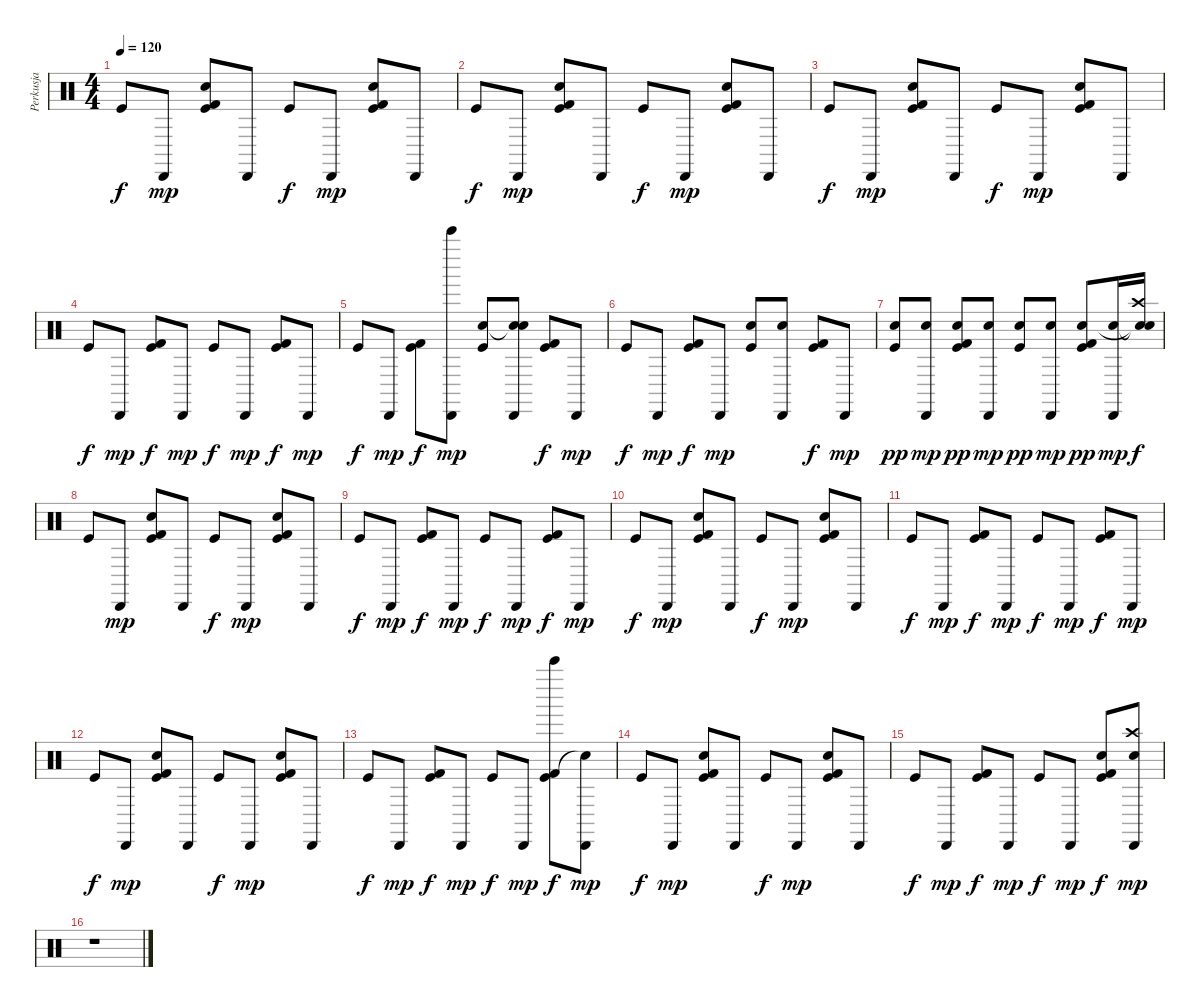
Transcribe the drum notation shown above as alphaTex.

\track ("Perkusja" "Perkusja") {instrument percussion}
\staff {score}
\articulation defaults
\ts (4 4)
\tempo 120
\clef neutral
\ks c "Kick (hit)".8{dy f} "Cabasa (hit)".8{dy mp}
("Kick (hit)" "Kick (hit) 2" "Electric Snare (hit)").8 "Cabasa (hit)".8 "Kick (hit)".8{dy f} "Cabasa (hit)".8{dy mp} ("Kick (hit)" "Kick (hit) 2" "Electric Snare (hit)").8 "Cabasa (hit)".8 |
"Kick (hit)".8{dy f} "Cabasa (hit)".8{dy mp} ("Kick (hit)" "Kick (hit) 2" "Electric Snare (hit)").8 "Cabasa (hit)".8 "Kick (hit)".8{dy f} "Cabasa (hit)".8{dy mp} ("Kick (hit)" "Kick (hit) 2" "Electric Snare (hit)").8 "Cabasa (hit)".8 |
"Kick (hit)".8{dy f} "Cabasa (hit)".8{dy mp} ("Kick (hit)" "Kick (hit) 2" "Electric Snare (hit)").8 "Cabasa (hit)".8 "Kick (hit)".8{dy f} "Cabasa (hit)".8{dy mp} ("Kick (hit)" "Kick (hit) 2" "Electric Snare (hit)").8 "Cabasa (hit)".8 |
"Kick (hit)".8{dy f} "Cabasa (hit)".8{dy mp} ("Kick (hit)" "Kick (hit) 2").8{dy f} "Cabasa (hit)".8{dy mp} "Kick (hit)".8{dy f} "Cabasa (hit)".8{dy mp} ("Kick (hit)" "Kick (hit) 2").8{dy f} "Cabasa (hit)".8{dy mp} |
"Kick (hit)".8{dy f} "Cabasa (hit)".8{dy mp} ("Kick (hit)" "Kick (hit) 2").8{dy f} ("Bell Tree (hit)" "Cabasa (hit)").8{dy mp} ("Kick (hit)" "Electric Snare (hit)").8 ("Electric Snare (hit)" "Snare (hit)"{t} "Cabasa (hit)").8 ("Kick (hit)" "Kick (hit) 2").8{dy f} "Cabasa (hit)".8{dy mp} |
"Kick (hit)".8{dy f} "Cabasa (hit)".8{dy mp} ("Kick (hit)" "Kick (hit) 2").8{dy f} "Cabasa (hit)".8{dy mp} ("Kick (hit)" "Electric Snare (hit)").8 ("Electric Snare (hit)" "Cabasa (hit)").8 ("Kick (hit)" "Kick (hit) 2").8{dy f} "Cabasa (hit)".8{dy mp} |
("Kick (hit)" "Electric Snare (hit)").8{dy pp} ("Electric Snare (hit)" "Cabasa (hit)").8{dy mp} ("Kick (hit)" "Kick (hit) 2" "Electric Snare (hit)").8{dy pp} ("Electric Snare (hit)" "Cabasa (hit)").8{dy mp} ("Kick (hit)" "Electric Snare (hit)").8{dy pp} ("Electric Snare (hit)" "Cabasa (hit)").8{dy mp} ("Kick (hit)" "Kick (hit) 2" "Electric Snare (hit)").8{dy pp} ("Electric Snare (hit)" "Cabasa (hit)").16{dy mp} ("Snare (hit)"{t} "Crash high (hit)" "Snare (hit)"{t}).16{dy f} |
"Kick (hit)".8 "Cabasa (hit)".8{dy mp} ("Kick (hit)" "Kick (hit) 2" "Electric Snare (hit)").8 "Cabasa (hit)".8 "Kick (hit)".8{dy f} "Cabasa (hit)".8{dy mp} ("Kick (hit)" "Kick (hit) 2" "Electric Snare (hit)").8 "Cabasa (hit)".8 |
"Kick (hit)".8{dy f} "Cabasa (hit)".8{dy mp} ("Kick (hit)" "Kick (hit) 2").8{dy f} "Cabasa (hit)".8{dy mp} "Kick (hit)".8{dy f} "Cabasa (hit)".8{dy mp} ("Kick (hit)" "Kick (hit) 2").8{dy f} "Cabasa (hit)".8{dy mp} |
"Kick (hit)".8{dy f} "Cabasa (hit)".8{dy mp} ("Kick (hit)" "Kick (hit) 2" "Electric Snare (hit)").8 "Cabasa (hit)".8 "Kick (hit)".8{dy f} "Cabasa (hit)".8{dy mp} ("Kick (hit)" "Kick (hit) 2" "Electric Snare (hit)").8 "Cabasa (hit)".8 |
"Kick (hit)".8{dy f} "Cabasa (hit)".8{dy mp} ("Kick (hit)" "Kick (hit) 2").8{dy f} "Cabasa (hit)".8{dy mp} "Kick (hit)".8{dy f} "Cabasa (hit)".8{dy mp} ("Kick (hit)" "Kick (hit) 2").8{dy f} "Cabasa (hit)".8{dy mp} |
"Kick (hit)".8{dy f} "Cabasa (hit)".8{dy mp} ("Kick (hit)" "Kick (hit) 2" "Electric Snare (hit)").8 "Cabasa (hit)".8 "Kick (hit)".8{dy f} "Cabasa (hit)".8{dy mp} ("Kick (hit)" "Kick (hit) 2" "Electric Snare (hit)").8 "Cabasa (hit)".8 |
"Kick (hit)".8{dy f} "Cabasa (hit)".8{dy mp} ("Kick (hit)" "Kick (hit) 2").8{dy f} "Cabasa (hit)".8{dy mp} "Kick (hit)".8{dy f} "Cabasa (hit)".8{dy mp} ("Kick (hit)" "Kick (hit) 2" "Bell Tree (hit)").8{dy f} ("Snare (hit)"{t} "Cabasa (hit)").8{dy mp} |
"Kick (hit)".8{dy f} "Cabasa (hit)".8{dy mp} ("Kick (hit)" "Kick (hit) 2" "Electric Snare (hit)").8 "Cabasa (hit)".8 "Kick (hit)".8{dy f} "Cabasa (hit)".8{dy mp} ("Kick (hit)" "Kick (hit) 2" "Electric Snare (hit)").8 "Cabasa (hit)".8 |
"Kick (hit)".8{dy f} "Cabasa (hit)".8{dy mp} ("Kick (hit)" "Kick (hit) 2").8{dy f} "Cabasa (hit)".8{dy mp} "Kick (hit)".8{dy f} "Cabasa (hit)".8{dy mp} ("Kick (hit)" "Kick (hit) 2" "Electric Snare (hit)").8{dy f} ("Electric Snare (hit)" "Crash high (hit)" "Cabasa (hit)").8{dy mp} |
r.1
